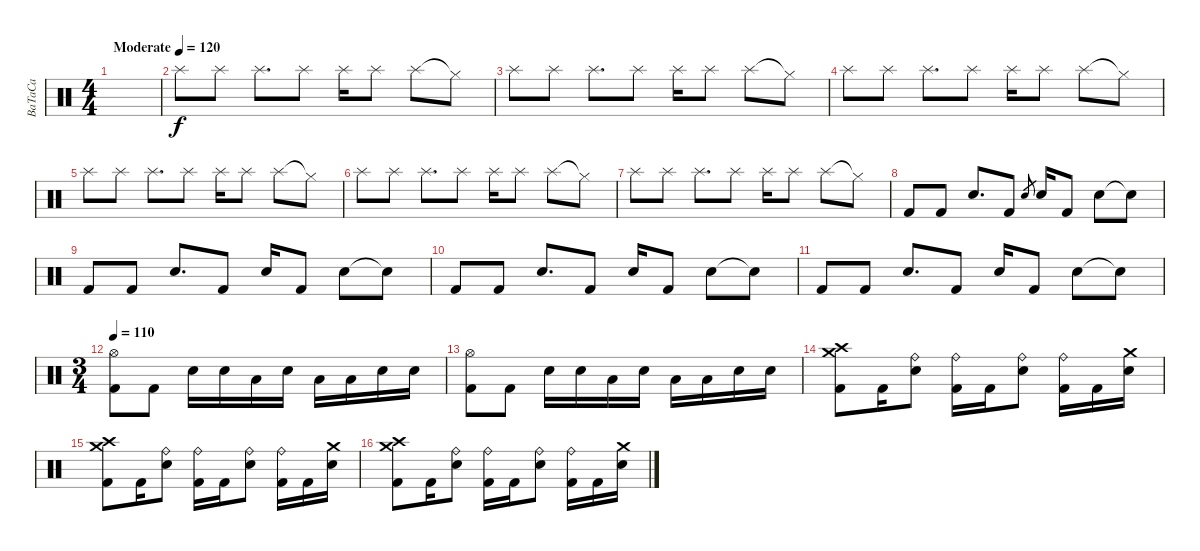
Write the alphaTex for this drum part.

\track ("BaTaCa" "BaTaCa") {instrument percussion}
\staff {score}
\articulation defaults
\ts (4 4)
\tempo (120 "Moderate")
\clef neutral
\ks c
|
"Splash (hit)".8 "Splash (hit)".8 "Splash (hit)".8{d} "Splash (hit)".8 "Splash (hit)".16 "Splash (hit)".8 "Splash (hit)".8 "Hi-Hat (closed)"{t}.8 |
"Splash (hit)".8 "Splash (hit)".8 "Splash (hit)".8{d} "Splash (hit)".8 "Splash (hit)".16 "Splash (hit)".8 "Splash (hit)".8 "Hi-Hat (closed)"{t}.8 |
"Splash (hit)".8 "Splash (hit)".8 "Splash (hit)".8{d} "Splash (hit)".8 "Splash (hit)".16 "Splash (hit)".8 "Splash (hit)".8 "Hi-Hat (closed)"{t}.8 |
"Splash (hit)".8 "Splash (hit)".8 "Splash (hit)".8{d} "Splash (hit)".8 "Splash (hit)".16 "Splash (hit)".8 "Splash (hit)".8 "Hi-Hat (closed)"{t}.8 |
"Splash (hit)".8 "Splash (hit)".8 "Splash (hit)".8{d} "Splash (hit)".8 "Splash (hit)".16 "Splash (hit)".8 "Splash (hit)".8 "Hi-Hat (closed)"{t}.8 |
"Splash (hit)".8 "Splash (hit)".8 "Splash (hit)".8{d} "Splash (hit)".8 "Splash (hit)".16 "Splash (hit)".8 "Splash (hit)".8 "Hi-Hat (closed)"{t}.8 |
"Kick (hit) 2".8 "Kick (hit) 2".8 "Electric Snare (hit)".8{d} "Kick (hit) 2".8 "Electric Snare (hit)".8{gr} "Electric Snare (hit)".16 "Kick (hit) 2".8 "Electric Snare (hit)".8 "Electric Snare (hit)"{t}.8 |
"Kick (hit) 2".8 "Kick (hit) 2".8 "Electric Snare (hit)".8{d} "Kick (hit) 2".8 "Electric Snare (hit)".16 "Kick (hit) 2".8 "Electric Snare (hit)".8 "Electric Snare (hit)"{t}.8 |
"Kick (hit) 2".8 "Kick (hit) 2".8 "Electric Snare (hit)".8{d} "Kick (hit) 2".8 "Electric Snare (hit)".16 "Kick (hit) 2".8 "Electric Snare (hit)".8 "Electric Snare (hit)"{t}.8 |
"Kick (hit) 2".8 "Kick (hit) 2".8 "Electric Snare (hit)".8{d} "Kick (hit) 2".8 "Electric Snare (hit)".16 "Kick (hit) 2".8 "Electric Snare (hit)".8 "Electric Snare (hit)"{t}.8 |
\ts (3 4)
\tempo 110
("Hi-Hat (open)" "Kick (hit) 2").8 "Kick (hit) 2".8 "Electric Snare (hit)".16 "Electric Snare (hit)".16 "Low Tom (hit)".16 "Electric Snare (hit)".16 "Low Tom (hit)".16 "Low Tom (hit)".16 "Electric Snare (hit)".16 "Electric Snare (hit)".16 |
("Hi-Hat (open)" "Kick (hit) 2").8 "Kick (hit) 2".8 "Electric Snare (hit)".16 "Electric Snare (hit)".16 "Low Tom (hit)".16 "Electric Snare (hit)".16 "Low Tom (hit)".16 "Low Tom (hit)".16 "Electric Snare (hit)".16 "Electric Snare (hit)".16 |
("Crash medium (hit)" "Crash high (hit)" "Kick (hit) 2").8 "Kick (hit) 2".16 ("Ride (bell)" "Electric Snare (hit)").8 ("Ride (bell)" "Kick (hit) 2").16 "Kick (hit) 2".16 ("Ride (bell)" "Electric Snare (hit)").8 ("Ride (bell)" "Kick (hit) 2").16 "Kick (hit) 2".16 ("Crash medium (hit)" "Electric Snare (hit)").16 |
("Crash medium (hit)" "Crash high (hit)" "Kick (hit) 2").8 "Kick (hit) 2".16 ("Ride (bell)" "Electric Snare (hit)").8 ("Ride (bell)" "Kick (hit) 2").16 "Kick (hit) 2".16 ("Ride (bell)" "Electric Snare (hit)").8 ("Ride (bell)" "Kick (hit) 2").16 "Kick (hit) 2".16 ("Crash medium (hit)" "Electric Snare (hit)").16 |
("Crash medium (hit)" "Crash high (hit)" "Kick (hit) 2").8 "Kick (hit) 2".16 ("Ride (bell)" "Electric Snare (hit)").8 ("Ride (bell)" "Kick (hit) 2").16 "Kick (hit) 2".16 ("Ride (bell)" "Electric Snare (hit)").8 ("Ride (bell)" "Kick (hit) 2").16 "Kick (hit) 2".16 ("Crash medium (hit)" "Electric Snare (hit)").16
